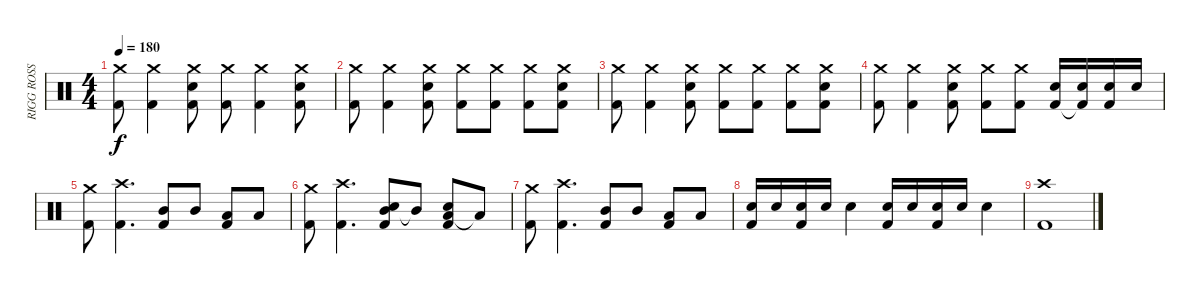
\track ("RIGG ROSS" "RIGG ROSS") {instrument percussion}
\staff {score}
\articulation defaults
\ts (4 4)
\tempo 180
\clef neutral
\ks c
("Crash medium (hit)" "Kick (hit) 2").8{dy f} ("Crash medium (hit)" "Kick (hit) 2").4 ("Crash medium (hit)" "Electric Snare (hit)" "Kick (hit) 2").8 ("Crash medium (hit)" "Kick (hit) 2").8 ("Crash medium (hit)" "Kick (hit) 2").4 ("Crash medium (hit)" "Electric Snare (hit)" "Kick (hit) 2").8 |
("Crash medium (hit)" "Kick (hit) 2").8 ("Crash medium (hit)" "Kick (hit) 2").4 ("Crash medium (hit)" "Electric Snare (hit)" "Kick (hit) 2").8 ("Crash medium (hit)" "Kick (hit) 2").8 ("Crash medium (hit)" "Kick (hit) 2").8 ("Crash medium (hit)" "Kick (hit) 2").8 ("Crash medium (hit)" "Electric Snare (hit)" "Kick (hit) 2").8 |
("Crash medium (hit)" "Kick (hit) 2").8 ("Crash medium (hit)" "Kick (hit) 2").4 ("Crash medium (hit)" "Electric Snare (hit)" "Kick (hit) 2").8 ("Crash medium (hit)" "Kick (hit) 2").8 ("Crash medium (hit)" "Kick (hit) 2").8 ("Crash medium (hit)" "Kick (hit) 2").8 ("Crash medium (hit)" "Electric Snare (hit)" "Kick (hit) 2").8 |
("Crash medium (hit)" "Kick (hit) 2").8 ("Crash medium (hit)" "Kick (hit) 2").4 ("Crash medium (hit)" "Electric Snare (hit)" "Kick (hit) 2").8 ("Crash medium (hit)" "Kick (hit) 2").8 ("Crash medium (hit)" "Kick (hit) 2").8 ("Electric Snare (hit)" "Kick (hit) 2").16 ("Electric Snare (hit)" "Kick (hit) 2"{t}).16 ("Electric Snare (hit)" "Kick (hit) 2").16 "Electric Snare (hit)".16 |
("Crash medium (hit)" "Kick (hit) 2").8 ("Crash high (hit)" "Kick (hit) 2").4{d} ("Mid Tom (hit)" "Kick (hit) 2").8 "Mid Tom (hit)".8 ("Low Tom (hit)" "Kick (hit) 2").8 "Low Tom (hit)".8 |
("Crash medium (hit)" "Kick (hit) 2").8 ("Crash high (hit)" "Kick (hit) 2").4{d} ("Mid Tom (hit)" "Electric Snare (hit)" "Kick (hit) 2").8 "Mid Tom (hit)"{t}.8 ("Low Tom (hit)" "Electric Snare (hit)" "Kick (hit) 2").8 "Low Tom (hit)"{t}.8 |
("Crash medium (hit)" "Kick (hit) 2").8 ("Crash high (hit)" "Kick (hit) 2").4{d} ("Mid Tom (hit)" "Kick (hit) 2").8 "Mid Tom (hit)".8 ("Low Tom (hit)" "Kick (hit) 2").8 "Low Tom (hit)".8 |
("Electric Snare (hit)" "Kick (hit) 2").16 "Electric Snare (hit)".16 ("Electric Snare (hit)" "Kick (hit) 2").16 "Electric Snare (hit)".16 "Electric Snare (hit)".4 ("Electric Snare (hit)" "Kick (hit) 2").16 "Electric Snare (hit)".16 ("Electric Snare (hit)" "Kick (hit) 2").16 "Electric Snare (hit)".16 "Electric Snare (hit)".4 |
("Crash high (hit)" "Kick (hit) 2").1
